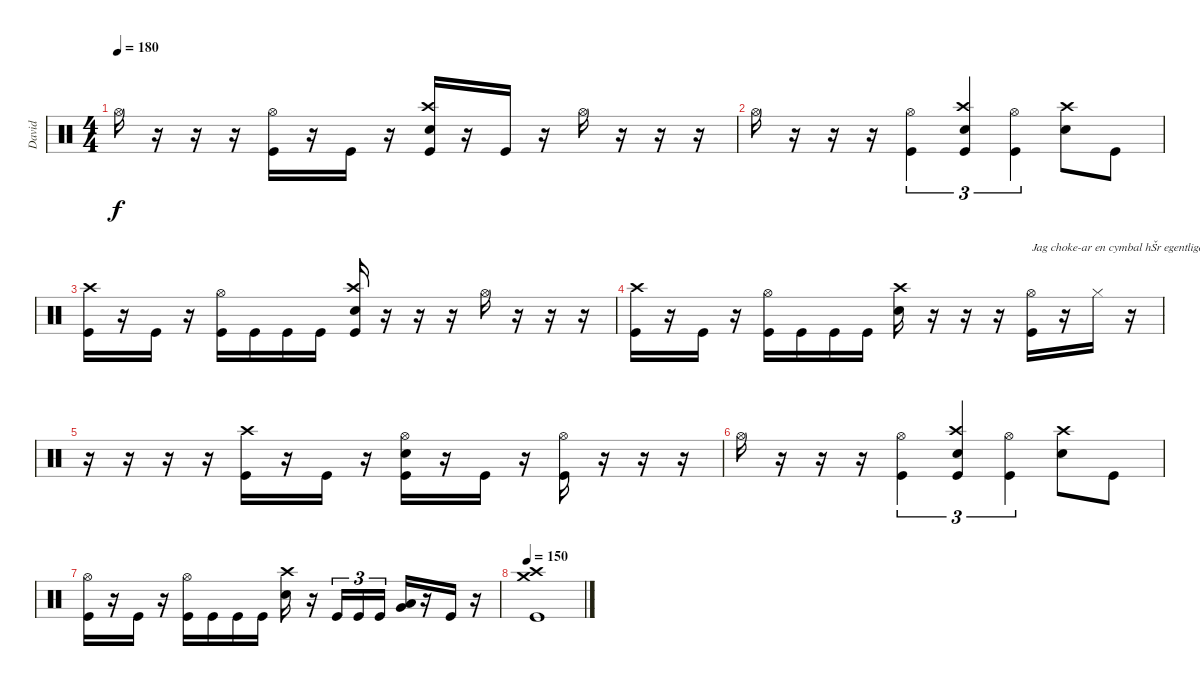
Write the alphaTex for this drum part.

\track ("David" "David") {instrument percussion}
\staff {score}
\articulation defaults
\ts (4 4)
\tempo 180
\clef neutral
\ks c "Hi-Hat (open)".16{dy f}
r.16 r.16 r.16 ("Hi-Hat (open)" "Kick (hit)").16 r.16 "Kick (hit)".16 r.16 ("Crash high (hit)" "Electric Snare (hit)" "Kick (hit)").16 r.16 "Kick (hit)".16 r.16 "Hi-Hat (open)".16 r.16 r.16 r.16 |
"Hi-Hat (open)".16 r.16 r.16 r.16 ("Hi-Hat (open)" "Kick (hit)").4{tu (3 2)} ("Crash high (hit)" "Electric Snare (hit)" "Kick (hit)").4{tu (3 2)} ("Hi-Hat (open)" "Kick (hit)").4{tu (3 2)} ("Crash high (hit)" "Electric Snare (hit)").8 "Kick (hit)".8 |
("Crash high (hit)" "Kick (hit)").16 r.16 "Kick (hit)".16 r.16 ("Hi-Hat (open)" "Kick (hit)").16 "Kick (hit)".16 "Kick (hit)".16 "Kick (hit)".16 ("Crash high (hit)" "Electric Snare (hit)" "Kick (hit)").16 r.16 r.16 r.16 "Hi-Hat (open)".16 r.16 r.16 r.16 |
("Crash high (hit)" "Kick (hit)").16 r.16 "Kick (hit)".16 r.16 ("Hi-Hat (open)" "Kick (hit)").16 "Kick (hit)".16 "Kick (hit)".16 "Kick (hit)".16 ("Crash high (hit)" "Electric Snare (hit)").16 r.16 r.16 r.16 ("Hi-Hat (open)" "Kick (hit)").16{txt "Jag choke-ar en cymbal hŠr egentligen"} r.16 "Hi-Hat (closed)".16 r.16 |
r.16 r.16 r.16 r.16 ("Crash high (hit)" "Kick (hit)").16 r.16 "Kick (hit)".16 r.16 ("Hi-Hat (open)" "Electric Snare (hit)" "Kick (hit)").16 r.16 "Kick (hit)".16 r.16 ("Hi-Hat (open)" "Kick (hit)").16 r.16 r.16 r.16 |
"Hi-Hat (open)".16 r.16 r.16 r.16 ("Hi-Hat (open)" "Kick (hit)").4{tu (3 2)} ("Crash high (hit)" "Electric Snare (hit)" "Kick (hit)").4{tu (3 2)} ("Hi-Hat (open)" "Kick (hit)").4{tu (3 2)} ("Crash high (hit)" "Electric Snare (hit)").8 "Kick (hit)".8 |
("Hi-Hat (open)" "Kick (hit)").16 r.16 "Kick (hit)".16 r.16 ("Hi-Hat (open)" "Kick (hit)").16 "Kick (hit)".16 "Kick (hit)".16 "Kick (hit)".16 ("Crash high (hit)" "Electric Snare (hit)").16 r.16 "Kick (hit)".16{tu (3 2)} "Kick (hit)".16{tu (3 2)} "Kick (hit)".16{tu (3 2)} ("Low Tom (hit)" "Very Low Tom (hit)").16 r.16 "Kick (hit)".16 r.16 |
\tempo 150
("Crash high (hit)" "Crash medium (hit)" "Kick (hit)").1
